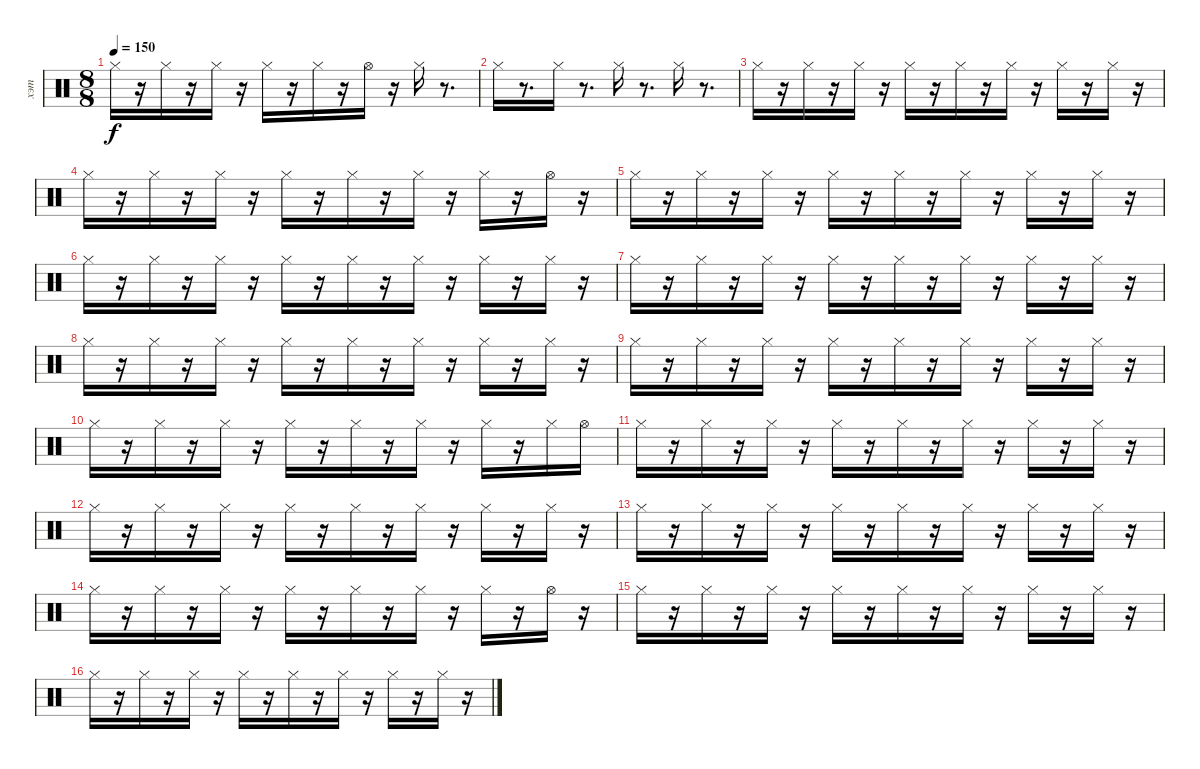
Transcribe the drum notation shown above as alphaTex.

\track ("хэт" "хэт") {instrument percussion}
\staff {score}
\articulation defaults
\ts (8 8)
\tempo 150
\clef neutral
\ks c "Hi-Hat (closed)".16{dy f}
r.16 "Hi-Hat (closed)".16 r.16 "Hi-Hat (closed)".16 r.16 "Hi-Hat (closed)".16 r.16 "Hi-Hat (closed)".16 r.16 "Hi-Hat (open)".16 r.16 "Hi-Hat (closed)".16 r.8{d} |
"Hi-Hat (closed)".16 r.8{d} "Hi-Hat (closed)".16 r.8{d} "Hi-Hat (closed)".16 r.8{d} "Hi-Hat (closed)".16 r.8{d} |
"Hi-Hat (closed)".16 r.16 "Hi-Hat (closed)".16 r.16 "Hi-Hat (closed)".16 r.16 "Hi-Hat (closed)".16 r.16 "Hi-Hat (closed)".16 r.16 "Hi-Hat (closed)".16 r.16 "Hi-Hat (closed)".16 r.16 "Hi-Hat (closed)".16 r.16 |
"Hi-Hat (closed)".16 r.16 "Hi-Hat (closed)".16 r.16 "Hi-Hat (closed)".16 r.16 "Hi-Hat (closed)".16 r.16 "Hi-Hat (closed)".16 r.16 "Hi-Hat (closed)".16 r.16 "Hi-Hat (closed)".16 r.16 "Hi-Hat (open)".16 r.16 |
"Hi-Hat (closed)".16 r.16 "Hi-Hat (closed)".16 r.16 "Hi-Hat (closed)".16 r.16 "Hi-Hat (closed)".16 r.16 "Hi-Hat (closed)".16 r.16 "Hi-Hat (closed)".16 r.16 "Hi-Hat (closed)".16 r.16 "Hi-Hat (closed)".16 r.16 |
"Hi-Hat (closed)".16 r.16 "Hi-Hat (closed)".16 r.16 "Hi-Hat (closed)".16 r.16 "Hi-Hat (closed)".16 r.16 "Hi-Hat (closed)".16 r.16 "Hi-Hat (closed)".16 r.16 "Hi-Hat (closed)".16 r.16 "Hi-Hat (closed)".16 r.16 |
"Hi-Hat (closed)".16 r.16 "Hi-Hat (closed)".16 r.16 "Hi-Hat (closed)".16 r.16 "Hi-Hat (closed)".16 r.16 "Hi-Hat (closed)".16 r.16 "Hi-Hat (closed)".16 r.16 "Hi-Hat (closed)".16 r.16 "Hi-Hat (closed)".16 r.16 |
"Hi-Hat (closed)".16 r.16 "Hi-Hat (closed)".16 r.16 "Hi-Hat (closed)".16 r.16 "Hi-Hat (closed)".16 r.16 "Hi-Hat (closed)".16 r.16 "Hi-Hat (closed)".16 r.16 "Hi-Hat (closed)".16 r.16 "Hi-Hat (closed)".16 r.16 |
"Hi-Hat (closed)".16 r.16 "Hi-Hat (closed)".16 r.16 "Hi-Hat (closed)".16 r.16 "Hi-Hat (closed)".16 r.16 "Hi-Hat (closed)".16 r.16 "Hi-Hat (closed)".16 r.16 "Hi-Hat (closed)".16 r.16 "Hi-Hat (closed)".16 r.16 |
"Hi-Hat (closed)".16 r.16 "Hi-Hat (closed)".16 r.16 "Hi-Hat (closed)".16 r.16 "Hi-Hat (closed)".16 r.16 "Hi-Hat (closed)".16 r.16 "Hi-Hat (closed)".16 r.16 "Hi-Hat (closed)".16 r.16 "Hi-Hat (closed)".16 "Hi-Hat (open)".16 |
"Hi-Hat (closed)".16 r.16 "Hi-Hat (closed)".16 r.16 "Hi-Hat (closed)".16 r.16 "Hi-Hat (closed)".16 r.16 "Hi-Hat (closed)".16 r.16 "Hi-Hat (closed)".16 r.16 "Hi-Hat (closed)".16 r.16 "Hi-Hat (closed)".16 r.16 |
"Hi-Hat (closed)".16 r.16 "Hi-Hat (closed)".16 r.16 "Hi-Hat (closed)".16 r.16 "Hi-Hat (closed)".16 r.16 "Hi-Hat (closed)".16 r.16 "Hi-Hat (closed)".16 r.16 "Hi-Hat (closed)".16 r.16 "Hi-Hat (closed)".16 r.16 |
"Hi-Hat (closed)".16 r.16 "Hi-Hat (closed)".16 r.16 "Hi-Hat (closed)".16 r.16 "Hi-Hat (closed)".16 r.16 "Hi-Hat (closed)".16 r.16 "Hi-Hat (closed)".16 r.16 "Hi-Hat (closed)".16 r.16 "Hi-Hat (closed)".16 r.16 |
"Hi-Hat (closed)".16 r.16 "Hi-Hat (closed)".16 r.16 "Hi-Hat (closed)".16 r.16 "Hi-Hat (closed)".16 r.16 "Hi-Hat (closed)".16 r.16 "Hi-Hat (closed)".16 r.16 "Hi-Hat (closed)".16 r.16 "Hi-Hat (open)".16 r.16 |
"Hi-Hat (closed)".16 r.16 "Hi-Hat (closed)".16 r.16 "Hi-Hat (closed)".16 r.16 "Hi-Hat (closed)".16 r.16 "Hi-Hat (closed)".16 r.16 "Hi-Hat (closed)".16 r.16 "Hi-Hat (closed)".16 r.16 "Hi-Hat (closed)".16 r.16 |
"Hi-Hat (closed)".16 r.16 "Hi-Hat (closed)".16 r.16 "Hi-Hat (closed)".16 r.16 "Hi-Hat (closed)".16 r.16 "Hi-Hat (closed)".16 r.16 "Hi-Hat (closed)".16 r.16 "Hi-Hat (closed)".16 r.16 "Hi-Hat (closed)".16 r.16
